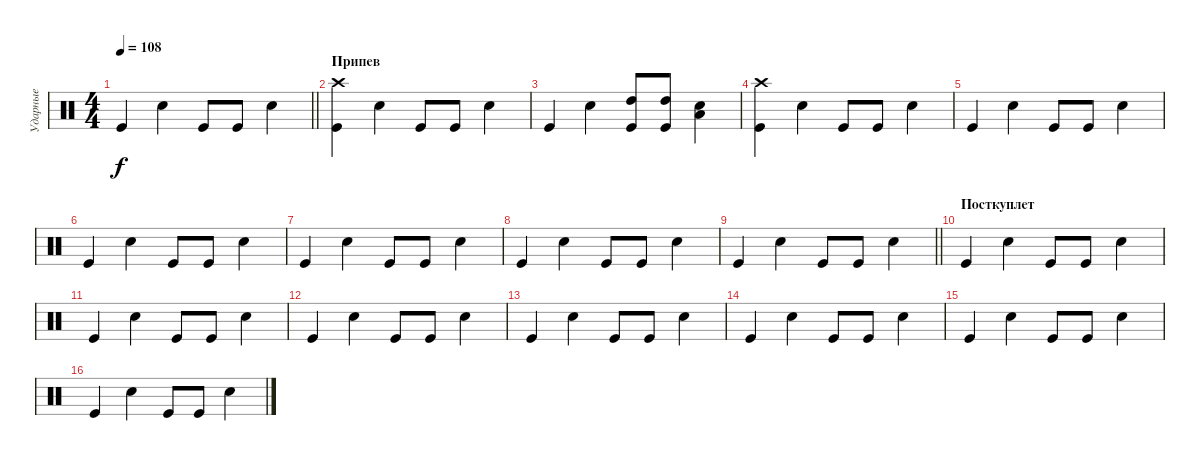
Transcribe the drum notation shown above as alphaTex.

\track ("Ударные" "Ударные") {instrument percussion}
\staff {score}
\articulation defaults
\ts (4 4)
\tempo 108
\clef neutral
\barLineRight lightlight
\ks c "Kick (hit)".4{dy f} "Snare (hit) 2".4 "Kick (hit)".8 "Kick (hit)".8 "Snare (hit) 2".4
|
\section ("" "Припев")
("Kick (hit)" "Crash high (hit)").4 "Snare (hit) 2".4 "Kick (hit)".8 "Kick (hit)".8 "Snare (hit) 2".4 |
"Kick (hit)".4 "Snare (hit) 2".4 ("Kick (hit)" "High Tom (hit)").8 ("Kick (hit)" "High Tom (hit)").8 ("Snare (hit) 2" "Low Tom (hit)").4 |
("Kick (hit)" "Crash high (hit)").4 "Snare (hit) 2".4 "Kick (hit)".8 "Kick (hit)".8 "Snare (hit) 2".4 |
"Kick (hit)".4 "Snare (hit) 2".4 "Kick (hit)".8 "Kick (hit)".8 "Snare (hit) 2".4 |
"Kick (hit)".4 "Snare (hit) 2".4 "Kick (hit)".8 "Kick (hit)".8 "Snare (hit) 2".4 |
"Kick (hit)".4 "Snare (hit) 2".4 "Kick (hit)".8 "Kick (hit)".8 "Snare (hit) 2".4 |
"Kick (hit)".4 "Snare (hit) 2".4 "Kick (hit)".8 "Kick (hit)".8 "Snare (hit) 2".4 |
\barLineRight lightlight "Kick (hit)".4 "Snare (hit) 2".4 "Kick (hit)".8 "Kick (hit)".8 "Snare (hit) 2".4
|
\section ("" "Посткуплет")
"Kick (hit)".4 "Snare (hit) 2".4 "Kick (hit)".8 "Kick (hit)".8 "Snare (hit) 2".4 |
"Kick (hit)".4 "Snare (hit) 2".4 "Kick (hit)".8 "Kick (hit)".8 "Snare (hit) 2".4 |
"Kick (hit)".4 "Snare (hit) 2".4 "Kick (hit)".8 "Kick (hit)".8 "Snare (hit) 2".4 |
"Kick (hit)".4 "Snare (hit) 2".4 "Kick (hit)".8 "Kick (hit)".8 "Snare (hit) 2".4 |
"Kick (hit)".4 "Snare (hit) 2".4 "Kick (hit)".8 "Kick (hit)".8 "Snare (hit) 2".4 |
"Kick (hit)".4 "Snare (hit) 2".4 "Kick (hit)".8 "Kick (hit)".8 "Snare (hit) 2".4 |
"Kick (hit)".4 "Snare (hit) 2".4 "Kick (hit)".8 "Kick (hit)".8 "Snare (hit) 2".4
